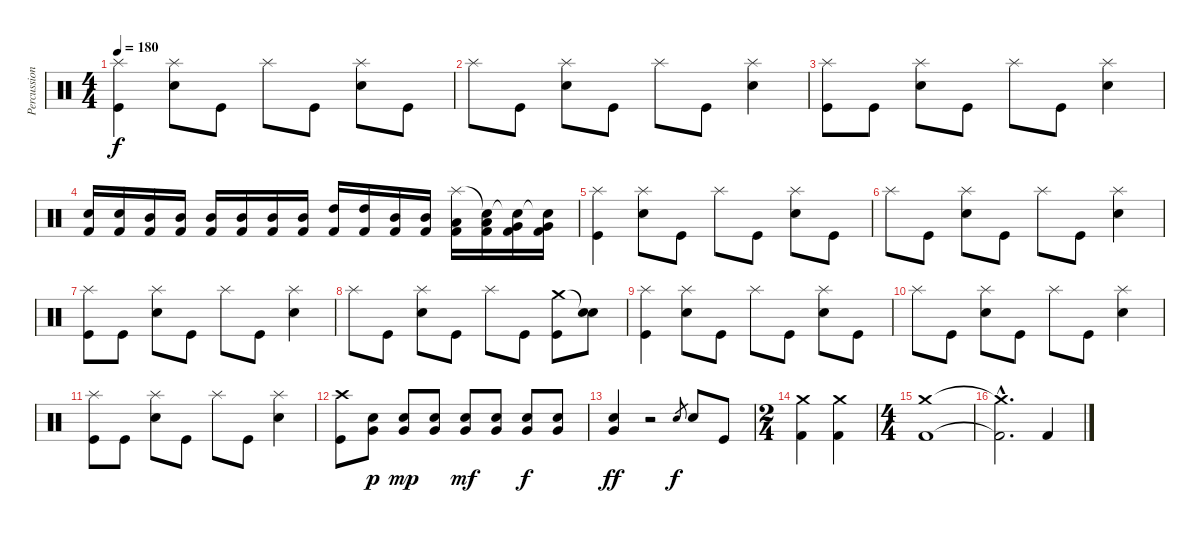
\track ("Percussion" "Percussion") {instrument percussion}
\staff {score}
\articulation defaults
\ts (4 4)
\tempo 180
\clef neutral
\ks c
("Splash (hit)" "Kick (hit)").4{dy f} ("Splash (hit)" "Electric Snare (hit)").8 "Kick (hit)".8 "Splash (hit)".8 "Kick (hit)".8 ("Splash (hit)" "Electric Snare (hit)").8 "Kick (hit)".8 |
"Splash (hit)".8 "Kick (hit)".8 ("Splash (hit)" "Electric Snare (hit)").8 "Kick (hit)".8 "Splash (hit)".8 "Kick (hit)".8 ("Splash (hit)" "Electric Snare (hit)").4 |
("Splash (hit)" "Kick (hit)").8 "Kick (hit)".8 ("Splash (hit)" "Electric Snare (hit)").8 "Kick (hit)".8 "Splash (hit)".8 "Kick (hit)".8 ("Splash (hit)" "Electric Snare (hit)").4 |
("Snare (hit) 2" "Kick (hit) 2").16 ("Snare (hit) 2" "Kick (hit) 2").16 ("Mid Tom (hit)" "Kick (hit) 2").16 ("Mid Tom (hit)" "Kick (hit) 2").16 ("Mid Tom (hit)" "Kick (hit) 2").16 ("Mid Tom (hit)" "Kick (hit) 2").16 ("Mid Tom (hit)" "Kick (hit) 2").16 ("Mid Tom (hit)" "Kick (hit) 2").16 ("High Tom (hit)" "Kick (hit) 2").16 ("High Tom (hit)" "Kick (hit) 2").16 ("Mid Tom (hit)" "Kick (hit) 2").16 ("Mid Tom (hit)" "Kick (hit) 2").16 ("Splash (hit)" "Low Tom (hit)" "Kick (hit) 2").16 ("Snare (hit)"{t} "Low Tom (hit)" "Kick (hit) 2").16 ("Snare (hit)"{t} "Very Low Tom (hit)" "Kick (hit) 2").16 ("Snare (hit)"{t} "Very Low Tom (hit)" "Kick (hit) 2").16 |
("Splash (hit)" "Kick (hit)").4 ("Splash (hit)" "Electric Snare (hit)").8 "Kick (hit)".8 "Splash (hit)".8 "Kick (hit)".8 ("Splash (hit)" "Electric Snare (hit)").8 "Kick (hit)".8 |
"Splash (hit)".8 "Kick (hit)".8 ("Splash (hit)" "Electric Snare (hit)").8 "Kick (hit)".8 "Splash (hit)".8 "Kick (hit)".8 ("Splash (hit)" "Electric Snare (hit)").4 |
("Splash (hit)" "Kick (hit)").8 "Kick (hit)".8 ("Splash (hit)" "Electric Snare (hit)").8 "Kick (hit)".8 "Splash (hit)".8 "Kick (hit)".8 ("Splash (hit)" "Electric Snare (hit)").4 |
"Splash (hit)".8 "Kick (hit)".8 ("Splash (hit)" "Electric Snare (hit)").8 "Kick (hit)".8 "Splash (hit)".8 "Kick (hit)".8 ("Crash medium (hit)" "Kick (hit)").8 ("Snare (hit)"{t} "Electric Snare (hit)").8 |
("Splash (hit)" "Kick (hit)").4 ("Splash (hit)" "Electric Snare (hit)").8 "Kick (hit)".8 "Splash (hit)".8 "Kick (hit)".8 ("Splash (hit)" "Electric Snare (hit)").8 "Kick (hit)".8 |
"Splash (hit)".8 "Kick (hit)".8 ("Splash (hit)" "Electric Snare (hit)").8 "Kick (hit)".8 "Splash (hit)".8 "Kick (hit)".8 ("Splash (hit)" "Electric Snare (hit)").4 |
("Splash (hit)" "Kick (hit)").8 "Kick (hit)".8 ("Splash (hit)" "Electric Snare (hit)").8 "Kick (hit)".8 "Splash (hit)".8 "Kick (hit)".8 ("Splash (hit)" "Electric Snare (hit)").4 |
("Crash high (hit)" "Kick (hit)").8 ("Snare (hit) 2" "Very Low Tom (hit)").8{dy p} ("Snare (hit) 2" "Very Low Tom (hit)").8{dy mp} ("Snare (hit) 2" "Very Low Tom (hit)").8 ("Snare (hit) 2" "Very Low Tom (hit)").8{dy mf} ("Snare (hit) 2" "Very Low Tom (hit)").8 ("Snare (hit) 2" "Very Low Tom (hit)").8{dy f} ("Snare (hit) 2" "Very Low Tom (hit)").8 |
("Snare (hit) 2" "Very Low Tom (hit)").4{dy ff} r.2 "Snare (hit) 2".8{gr dy f} "Snare (hit) 2".8 "Kick (hit)".8 |
\ts (2 4)
("Crash medium (hit)" "Kick (hit) 2").4 ("Crash medium (hit)" "Kick (hit) 2").4 |
\ts (4 4)
("Crash medium (hit)" "Kick (hit) 2").1 |
("Crash medium (hit)"{hac t} "Kick (hit) 2"{hac t}).2{d} "Kick (hit) 2".4
